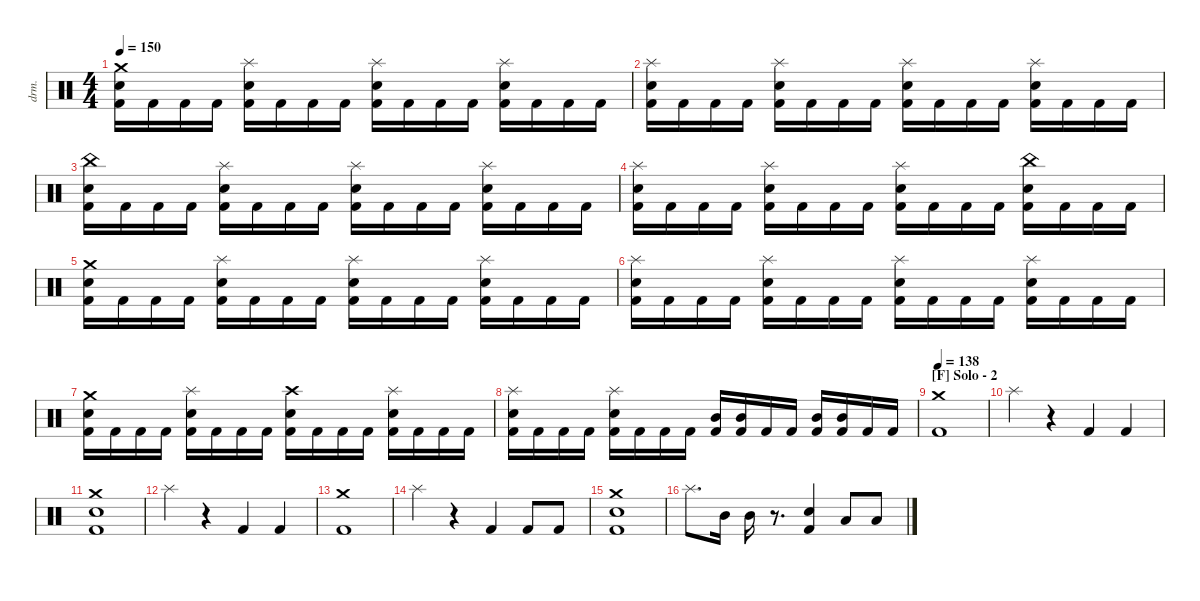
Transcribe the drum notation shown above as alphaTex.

\hideDynamics
\bracketExtendMode nobrackets
\track ("Drums" "drm.") {instrument percussion}
\staff {score}
\articulation defaults
\ts (4 4)
\tempo 150
\clef neutral
\ks c
("Kick (hit) 2" "Snare (hit) 2" "Crash medium (hit)").16{dy mf beam Down} "Kick (hit) 2".16{beam Down} "Kick (hit) 2".16{beam Down} "Kick (hit) 2".16{beam Down} ("Kick (hit) 2" "Snare (hit) 2" "Splash (hit)").16{beam Down} "Kick (hit) 2".16{beam Down} "Kick (hit) 2".16{beam Down} "Kick (hit) 2".16{beam Down} ("Kick (hit) 2" "Snare (hit) 2" "Splash (hit)").16{beam Down} "Kick (hit) 2".16{beam Down} "Kick (hit) 2".16{beam Down} "Kick (hit) 2".16{beam Down} ("Kick (hit) 2" "Snare (hit) 2" "Splash (hit)").16{beam Down} "Kick (hit) 2".16{beam Down} "Kick (hit) 2".16{beam Down} "Kick (hit) 2".16{beam Down} |
("Kick (hit) 2" "Snare (hit) 2" "Splash (hit)").16{beam Down} "Kick (hit) 2".16{beam Down} "Kick (hit) 2".16{beam Down} "Kick (hit) 2".16{beam Down} ("Kick (hit) 2" "Snare (hit) 2" "Splash (hit)").16{beam Down} "Kick (hit) 2".16{beam Down} "Kick (hit) 2".16{beam Down} "Kick (hit) 2".16{beam Down} ("Kick (hit) 2" "Snare (hit) 2" "Splash (hit)").16{beam Down} "Kick (hit) 2".16{beam Down} "Kick (hit) 2".16{beam Down} "Kick (hit) 2".16{beam Down} ("Kick (hit) 2" "Snare (hit) 2" "Splash (hit)").16{beam Down} "Kick (hit) 2".16{beam Down} "Kick (hit) 2".16{beam Down} "Kick (hit) 2".16{beam Down} |
("Kick (hit) 2" "Snare (hit) 2" "China (hit)").16{beam Down} "Kick (hit) 2".16{beam Down} "Kick (hit) 2".16{beam Down} "Kick (hit) 2".16{beam Down} ("Kick (hit) 2" "Snare (hit) 2" "Splash (hit)").16{beam Down} "Kick (hit) 2".16{beam Down} "Kick (hit) 2".16{beam Down} "Kick (hit) 2".16{beam Down} ("Kick (hit) 2" "Snare (hit) 2" "Splash (hit)").16{beam Down} "Kick (hit) 2".16{beam Down} "Kick (hit) 2".16{beam Down} "Kick (hit) 2".16{beam Down} ("Kick (hit) 2" "Snare (hit) 2" "Splash (hit)").16{beam Down} "Kick (hit) 2".16{beam Down} "Kick (hit) 2".16{beam Down} "Kick (hit) 2".16{beam Down} |
("Kick (hit) 2" "Snare (hit) 2" "Splash (hit)").16{beam Down} "Kick (hit) 2".16{beam Down} "Kick (hit) 2".16{beam Down} "Kick (hit) 2".16{beam Down} ("Kick (hit) 2" "Snare (hit) 2" "Splash (hit)").16{beam Down} "Kick (hit) 2".16{beam Down} "Kick (hit) 2".16{beam Down} "Kick (hit) 2".16{beam Down} ("Kick (hit) 2" "Snare (hit) 2" "Splash (hit)").16{beam Down} "Kick (hit) 2".16{beam Down} "Kick (hit) 2".16{beam Down} "Kick (hit) 2".16{beam Down} ("Kick (hit) 2" "Snare (hit) 2" "China (hit)").16{beam Down} "Kick (hit) 2".16{beam Down} "Kick (hit) 2".16{beam Down} "Kick (hit) 2".16{beam Down} |
("Kick (hit) 2" "Snare (hit) 2" "Crash medium (hit)").16{beam Down} "Kick (hit) 2".16{beam Down} "Kick (hit) 2".16{beam Down} "Kick (hit) 2".16{beam Down} ("Kick (hit) 2" "Snare (hit) 2" "Splash (hit)").16{beam Down} "Kick (hit) 2".16{beam Down} "Kick (hit) 2".16{beam Down} "Kick (hit) 2".16{beam Down} ("Kick (hit) 2" "Snare (hit) 2" "Splash (hit)").16{beam Down} "Kick (hit) 2".16{beam Down} "Kick (hit) 2".16{beam Down} "Kick (hit) 2".16{beam Down} ("Kick (hit) 2" "Snare (hit) 2" "Splash (hit)").16{beam Down} "Kick (hit) 2".16{beam Down} "Kick (hit) 2".16{beam Down} "Kick (hit) 2".16{beam Down} |
("Kick (hit) 2" "Snare (hit) 2" "Splash (hit)").16{beam Down} "Kick (hit) 2".16{beam Down} "Kick (hit) 2".16{beam Down} "Kick (hit) 2".16{beam Down} ("Kick (hit) 2" "Snare (hit) 2" "Splash (hit)").16{beam Down} "Kick (hit) 2".16{beam Down} "Kick (hit) 2".16{beam Down} "Kick (hit) 2".16{beam Down} ("Kick (hit) 2" "Snare (hit) 2" "Splash (hit)").16{beam Down} "Kick (hit) 2".16{beam Down} "Kick (hit) 2".16{beam Down} "Kick (hit) 2".16{beam Down} ("Kick (hit) 2" "Snare (hit) 2" "Splash (hit)").16{beam Down} "Kick (hit) 2".16{beam Down} "Kick (hit) 2".16{beam Down} "Kick (hit) 2".16{beam Down} |
("Kick (hit) 2" "Snare (hit) 2" "Crash medium (hit)").16{beam Down} "Kick (hit) 2".16{beam Down} "Kick (hit) 2".16{beam Down} "Kick (hit) 2".16{beam Down} ("Kick (hit) 2" "Snare (hit) 2" "Splash (hit)").16{beam Down} "Kick (hit) 2".16{beam Down} "Kick (hit) 2".16{beam Down} "Kick (hit) 2".16{beam Down} ("Kick (hit) 2" "Snare (hit) 2" "Crash high (hit)").16{beam Down} "Kick (hit) 2".16{beam Down} "Kick (hit) 2".16{beam Down} "Kick (hit) 2".16{beam Down} ("Kick (hit) 2" "Snare (hit) 2" "Splash (hit)").16{beam Down} "Kick (hit) 2".16{beam Down} "Kick (hit) 2".16{beam Down} "Kick (hit) 2".16{beam Down} |
("Kick (hit) 2" "Snare (hit) 2" "Splash (hit)").16{beam Down} "Kick (hit) 2".16{beam Down} "Kick (hit) 2".16{beam Down} "Kick (hit) 2".16{beam Down} ("Kick (hit) 2" "Snare (hit) 2" "Splash (hit)").16{beam Down} "Kick (hit) 2".16{beam Down} "Kick (hit) 2".16{beam Down} "Kick (hit) 2".16{beam Down} ("Kick (hit) 2" "Mid Tom (hit)").16{beam Up} ("Kick (hit) 2" "Mid Tom (hit)").16{beam Up} "Kick (hit) 2".16{beam Up} "Kick (hit) 2".16{beam Up} ("Kick (hit) 2" "Mid Tom (hit)").16{beam Up} ("Kick (hit) 2" "Mid Tom (hit)").16{beam Up} "Kick (hit) 2".16{beam Up} "Kick (hit) 2".16{beam Up} |
\section ("F" "Solo - 2")
\tempo 138
("Kick (hit) 2" "Crash medium (hit)").1{beam Down} |
"Splash (hit)".4{beam Down} r.4{beam Down} "Kick (hit) 2".4{beam Up} "Kick (hit) 2".4{beam Up} |
("Kick (hit) 2" "Crash medium (hit)" "Snare (hit) 2").1{beam Down} |
"Splash (hit)".4{beam Down} r.4{beam Down} "Kick (hit) 2".4{beam Up} "Kick (hit) 2".4{beam Up} |
("Kick (hit) 2" "Crash medium (hit)").1{beam Down} |
"Splash (hit)".4{beam Down} r.4{beam Down} "Kick (hit) 2".4{beam Up} "Kick (hit) 2".8{beam Up} "Kick (hit) 2".8{beam Up} |
("Kick (hit) 2" "Crash medium (hit)" "Snare (hit) 2").1{beam Down} |
"Splash (hit)".8{d beam Down} "Mid Tom (hit)".16{beam Down} "Mid Tom (hit)".16{beam Down} r.8{d beam Down} ("Kick (hit) 2" "Snare (hit) 2").4{beam Up} "Low Tom (hit)".8{beam Up} "Low Tom (hit)".8{beam Up}
